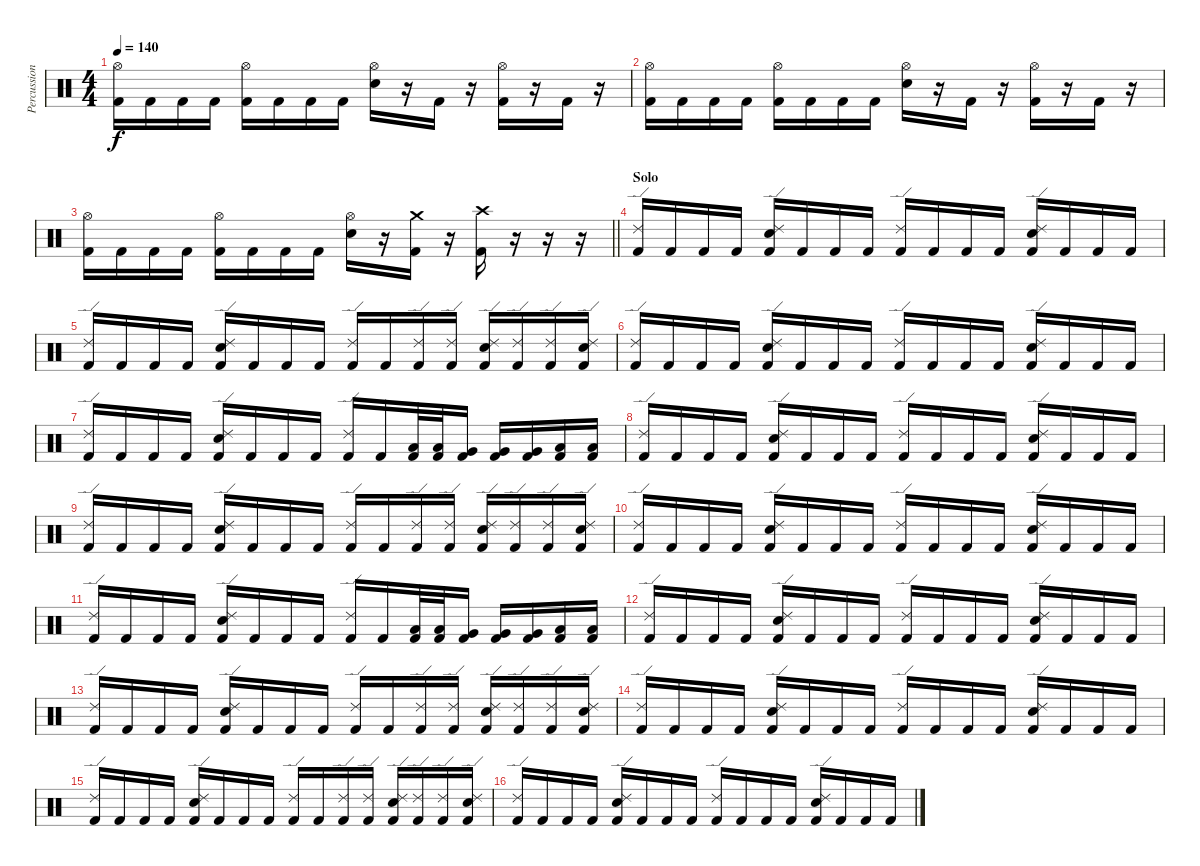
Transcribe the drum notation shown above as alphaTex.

\track ("Percussion" "Percussion") {instrument percussion}
\staff {score}
\articulation defaults
\ts (4 4)
\tempo 140
\clef neutral
\ks c
("Hi-Hat (open)" "Kick (hit) 2").16{dy f} "Kick (hit) 2".16 "Kick (hit) 2".16 "Kick (hit) 2".16 ("Hi-Hat (open)" "Kick (hit) 2").16 "Kick (hit) 2".16 "Kick (hit) 2".16 "Kick (hit) 2".16 ("Hi-Hat (open)" "Electric Snare (hit)").16 r.16 "Kick (hit) 2".16 r.16 ("Hi-Hat (open)" "Kick (hit) 2").16 r.16 "Kick (hit) 2".16 r.16 |
("Hi-Hat (open)" "Kick (hit) 2").16 "Kick (hit) 2".16 "Kick (hit) 2".16 "Kick (hit) 2".16 ("Hi-Hat (open)" "Kick (hit) 2").16 "Kick (hit) 2".16 "Kick (hit) 2".16 "Kick (hit) 2".16 ("Hi-Hat (open)" "Electric Snare (hit)").16 r.16 "Kick (hit) 2".16 r.16 ("Hi-Hat (open)" "Kick (hit) 2").16 r.16 "Kick (hit) 2".16 r.16 |
\barLineRight lightlight
("Hi-Hat (open)" "Kick (hit) 2").16 "Kick (hit) 2".16 "Kick (hit) 2".16 "Kick (hit) 2".16 ("Hi-Hat (open)" "Kick (hit) 2").16 "Kick (hit) 2".16 "Kick (hit) 2".16 "Kick (hit) 2".16 ("Hi-Hat (open)" "Electric Snare (hit)").16 r.16 ("Crash medium (hit)" "Kick (hit) 2").16 r.16 ("Crash high (hit)" "Kick (hit) 2").16 r.16 r.16 r.16 |
\section ("" "Solo")
("Ride (edge) 2" "Kick (hit) 2").16 "Kick (hit) 2".16 "Kick (hit) 2".16 "Kick (hit) 2".16 ("Ride (edge) 2" "Electric Snare (hit)" "Kick (hit) 2").16 "Kick (hit) 2".16 "Kick (hit) 2".16 "Kick (hit) 2".16 ("Ride (edge) 2" "Kick (hit) 2").16 "Kick (hit) 2".16 "Kick (hit) 2".16 "Kick (hit) 2".16 ("Ride (edge) 2" "Electric Snare (hit)" "Kick (hit) 2").16 "Kick (hit) 2".16 "Kick (hit) 2".16 "Kick (hit) 2".16 |
("Ride (edge) 2" "Kick (hit) 2").16 "Kick (hit) 2".16 "Kick (hit) 2".16 "Kick (hit) 2".16 ("Ride (edge) 2" "Electric Snare (hit)" "Kick (hit) 2").16 "Kick (hit) 2".16 "Kick (hit) 2".16 "Kick (hit) 2".16 ("Ride (edge) 2" "Kick (hit) 2").16 "Kick (hit) 2".16 ("Ride (edge) 2" "Kick (hit) 2").16 ("Ride (edge) 2" "Kick (hit) 2").16 ("Ride (edge) 2" "Electric Snare (hit)" "Kick (hit) 2").16 ("Ride (edge) 2" "Kick (hit) 2").16 ("Ride (edge) 2" "Kick (hit) 2").16 ("Ride (edge) 2" "Electric Snare (hit)" "Kick (hit) 2").16 |
("Ride (edge) 2" "Kick (hit) 2").16 "Kick (hit) 2".16 "Kick (hit) 2".16 "Kick (hit) 2".16 ("Ride (edge) 2" "Electric Snare (hit)" "Kick (hit) 2").16 "Kick (hit) 2".16 "Kick (hit) 2".16 "Kick (hit) 2".16 ("Ride (edge) 2" "Kick (hit) 2").16 "Kick (hit) 2".16 "Kick (hit) 2".16 "Kick (hit) 2".16 ("Ride (edge) 2" "Electric Snare (hit)" "Kick (hit) 2").16 "Kick (hit) 2".16 "Kick (hit) 2".16 "Kick (hit) 2".16 |
("Ride (edge) 2" "Kick (hit) 2").16 "Kick (hit) 2".16 "Kick (hit) 2".16 "Kick (hit) 2".16 ("Ride (edge) 2" "Electric Snare (hit)" "Kick (hit) 2").16 "Kick (hit) 2".16 "Kick (hit) 2".16 "Kick (hit) 2".16 ("Ride (edge) 2" "Kick (hit) 2").16 "Kick (hit) 2".16 ("Low Tom (hit)" "Kick (hit) 2").32 ("Low Tom (hit)" "Kick (hit) 2").32 ("Very Low Tom (hit)" "Kick (hit) 2").16 ("Very Low Tom (hit)" "Kick (hit) 2").16 ("Very Low Tom (hit)" "Kick (hit) 2").16 ("Low Floor Tom (hit)" "Kick (hit) 2").16 ("Low Floor Tom (hit)" "Kick (hit) 2").16 |
("Ride (edge) 2" "Kick (hit) 2").16 "Kick (hit) 2".16 "Kick (hit) 2".16 "Kick (hit) 2".16 ("Ride (edge) 2" "Electric Snare (hit)" "Kick (hit) 2").16 "Kick (hit) 2".16 "Kick (hit) 2".16 "Kick (hit) 2".16 ("Ride (edge) 2" "Kick (hit) 2").16 "Kick (hit) 2".16 "Kick (hit) 2".16 "Kick (hit) 2".16 ("Ride (edge) 2" "Electric Snare (hit)" "Kick (hit) 2").16 "Kick (hit) 2".16 "Kick (hit) 2".16 "Kick (hit) 2".16 |
("Ride (edge) 2" "Kick (hit) 2").16 "Kick (hit) 2".16 "Kick (hit) 2".16 "Kick (hit) 2".16 ("Ride (edge) 2" "Electric Snare (hit)" "Kick (hit) 2").16 "Kick (hit) 2".16 "Kick (hit) 2".16 "Kick (hit) 2".16 ("Ride (edge) 2" "Kick (hit) 2").16 "Kick (hit) 2".16 ("Ride (edge) 2" "Kick (hit) 2").16 ("Ride (edge) 2" "Kick (hit) 2").16 ("Ride (edge) 2" "Electric Snare (hit)" "Kick (hit) 2").16 ("Ride (edge) 2" "Kick (hit) 2").16 ("Ride (edge) 2" "Kick (hit) 2").16 ("Ride (edge) 2" "Electric Snare (hit)" "Kick (hit) 2").16 |
("Ride (edge) 2" "Kick (hit) 2").16 "Kick (hit) 2".16 "Kick (hit) 2".16 "Kick (hit) 2".16 ("Ride (edge) 2" "Electric Snare (hit)" "Kick (hit) 2").16 "Kick (hit) 2".16 "Kick (hit) 2".16 "Kick (hit) 2".16 ("Ride (edge) 2" "Kick (hit) 2").16 "Kick (hit) 2".16 "Kick (hit) 2".16 "Kick (hit) 2".16 ("Ride (edge) 2" "Electric Snare (hit)" "Kick (hit) 2").16 "Kick (hit) 2".16 "Kick (hit) 2".16 "Kick (hit) 2".16 |
("Ride (edge) 2" "Kick (hit) 2").16 "Kick (hit) 2".16 "Kick (hit) 2".16 "Kick (hit) 2".16 ("Ride (edge) 2" "Electric Snare (hit)" "Kick (hit) 2").16 "Kick (hit) 2".16 "Kick (hit) 2".16 "Kick (hit) 2".16 ("Ride (edge) 2" "Kick (hit) 2").16 "Kick (hit) 2".16 ("Low Tom (hit)" "Kick (hit) 2").32 ("Low Tom (hit)" "Kick (hit) 2").32 ("Very Low Tom (hit)" "Kick (hit) 2").16 ("Very Low Tom (hit)" "Kick (hit) 2").16 ("Very Low Tom (hit)" "Kick (hit) 2").16 ("Low Floor Tom (hit)" "Kick (hit) 2").16 ("Low Floor Tom (hit)" "Kick (hit) 2").16 |
("Ride (edge) 2" "Kick (hit) 2").16 "Kick (hit) 2".16 "Kick (hit) 2".16 "Kick (hit) 2".16 ("Ride (edge) 2" "Electric Snare (hit)" "Kick (hit) 2").16 "Kick (hit) 2".16 "Kick (hit) 2".16 "Kick (hit) 2".16 ("Ride (edge) 2" "Kick (hit) 2").16 "Kick (hit) 2".16 "Kick (hit) 2".16 "Kick (hit) 2".16 ("Ride (edge) 2" "Electric Snare (hit)" "Kick (hit) 2").16 "Kick (hit) 2".16 "Kick (hit) 2".16 "Kick (hit) 2".16 |
("Ride (edge) 2" "Kick (hit) 2").16 "Kick (hit) 2".16 "Kick (hit) 2".16 "Kick (hit) 2".16 ("Ride (edge) 2" "Electric Snare (hit)" "Kick (hit) 2").16 "Kick (hit) 2".16 "Kick (hit) 2".16 "Kick (hit) 2".16 ("Ride (edge) 2" "Kick (hit) 2").16 "Kick (hit) 2".16 ("Ride (edge) 2" "Kick (hit) 2").16 ("Ride (edge) 2" "Kick (hit) 2").16 ("Ride (edge) 2" "Electric Snare (hit)" "Kick (hit) 2").16 ("Ride (edge) 2" "Kick (hit) 2").16 ("Ride (edge) 2" "Kick (hit) 2").16 ("Ride (edge) 2" "Electric Snare (hit)" "Kick (hit) 2").16 |
("Ride (edge) 2" "Kick (hit) 2").16 "Kick (hit) 2".16 "Kick (hit) 2".16 "Kick (hit) 2".16 ("Ride (edge) 2" "Electric Snare (hit)" "Kick (hit) 2").16 "Kick (hit) 2".16 "Kick (hit) 2".16 "Kick (hit) 2".16 ("Ride (edge) 2" "Kick (hit) 2").16 "Kick (hit) 2".16 "Kick (hit) 2".16 "Kick (hit) 2".16 ("Ride (edge) 2" "Electric Snare (hit)" "Kick (hit) 2").16 "Kick (hit) 2".16 "Kick (hit) 2".16 "Kick (hit) 2".16 |
("Ride (edge) 2" "Kick (hit) 2").16 "Kick (hit) 2".16 "Kick (hit) 2".16 "Kick (hit) 2".16 ("Ride (edge) 2" "Electric Snare (hit)" "Kick (hit) 2").16 "Kick (hit) 2".16 "Kick (hit) 2".16 "Kick (hit) 2".16 ("Ride (edge) 2" "Kick (hit) 2").16 "Kick (hit) 2".16 ("Ride (edge) 2" "Kick (hit) 2").16 ("Ride (edge) 2" "Kick (hit) 2").16 ("Ride (edge) 2" "Electric Snare (hit)" "Kick (hit) 2").16 ("Ride (edge) 2" "Kick (hit) 2").16 ("Ride (edge) 2" "Kick (hit) 2").16 ("Ride (edge) 2" "Electric Snare (hit)" "Kick (hit) 2").16 |
("Ride (edge) 2" "Kick (hit) 2").16 "Kick (hit) 2".16 "Kick (hit) 2".16 "Kick (hit) 2".16 ("Ride (edge) 2" "Electric Snare (hit)" "Kick (hit) 2").16 "Kick (hit) 2".16 "Kick (hit) 2".16 "Kick (hit) 2".16 ("Ride (edge) 2" "Kick (hit) 2").16 "Kick (hit) 2".16 "Kick (hit) 2".16 "Kick (hit) 2".16 ("Ride (edge) 2" "Electric Snare (hit)" "Kick (hit) 2").16 "Kick (hit) 2".16 "Kick (hit) 2".16 "Kick (hit) 2".16
